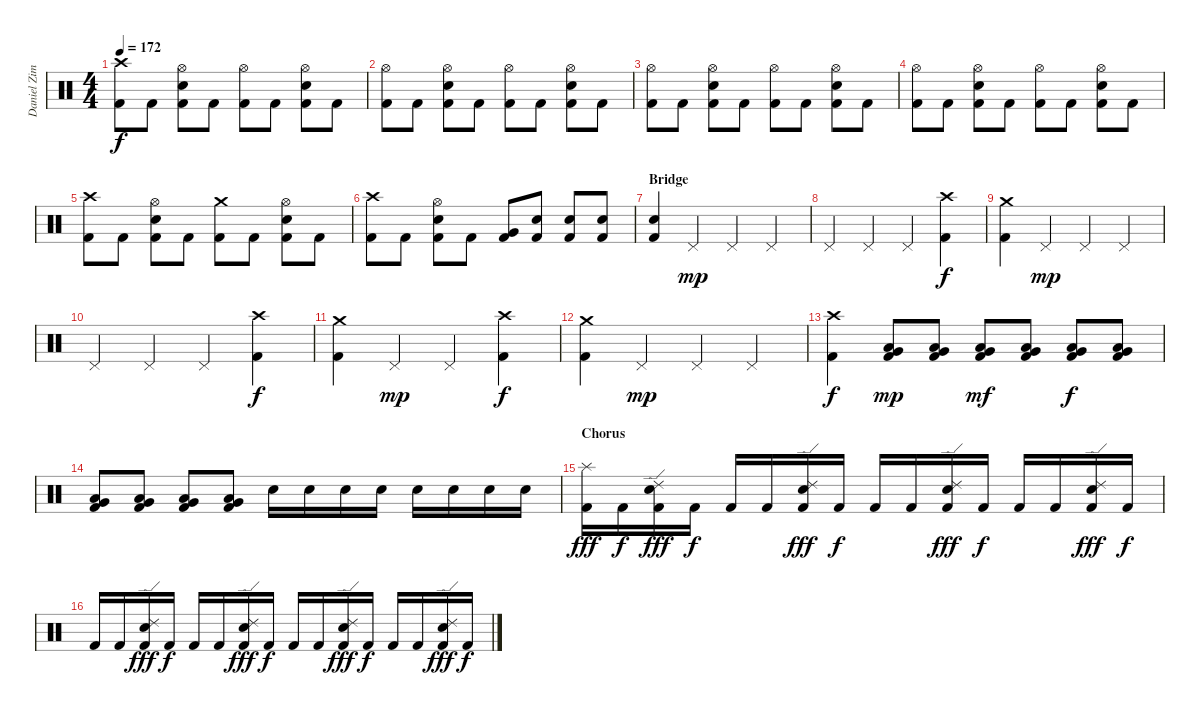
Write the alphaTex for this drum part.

\track ("Daniel Zimmermann - Drums" "Daniel Zim") {instrument percussion}
\staff {score}
\articulation defaults
\ts (4 4)
\tempo 172
\clef neutral
\ks c
("Kick (hit) 2" "Crash high (hit)").8{dy f} "Kick (hit) 2".8 ("Kick (hit) 2" "Electric Snare (hit)" "Hi-Hat (open)").8 "Kick (hit) 2".8 ("Kick (hit) 2" "Hi-Hat (open)").8 "Kick (hit) 2".8 ("Kick (hit) 2" "Electric Snare (hit)" "Hi-Hat (open)").8 "Kick (hit) 2".8 |
("Kick (hit) 2" "Hi-Hat (open)").8 "Kick (hit) 2".8 ("Kick (hit) 2" "Electric Snare (hit)" "Hi-Hat (open)").8 "Kick (hit) 2".8 ("Kick (hit) 2" "Hi-Hat (open)").8 "Kick (hit) 2".8 ("Kick (hit) 2" "Electric Snare (hit)" "Hi-Hat (open)").8 "Kick (hit) 2".8 |
("Kick (hit) 2" "Hi-Hat (open)").8 "Kick (hit) 2".8 ("Kick (hit) 2" "Electric Snare (hit)" "Hi-Hat (open)").8 "Kick (hit) 2".8 ("Kick (hit) 2" "Hi-Hat (open)").8 "Kick (hit) 2".8 ("Kick (hit) 2" "Electric Snare (hit)" "Hi-Hat (open)").8 "Kick (hit) 2".8 |
("Kick (hit) 2" "Hi-Hat (open)").8 "Kick (hit) 2".8 ("Kick (hit) 2" "Electric Snare (hit)" "Hi-Hat (open)").8 "Kick (hit) 2".8 ("Kick (hit) 2" "Hi-Hat (open)").8 "Kick (hit) 2".8 ("Kick (hit) 2" "Electric Snare (hit)" "Hi-Hat (open)").8 "Kick (hit) 2".8 |
("Kick (hit) 2" "Crash high (hit)").8 "Kick (hit) 2".8 ("Kick (hit) 2" "Electric Snare (hit)" "Hi-Hat (open)").8 "Kick (hit) 2".8 ("Kick (hit) 2" "Crash medium (hit)").8 "Kick (hit) 2".8 ("Kick (hit) 2" "Electric Snare (hit)" "Hi-Hat (open)").8 "Kick (hit) 2".8 |
("Kick (hit) 2" "Crash high (hit)").8 "Kick (hit) 2".8 ("Kick (hit) 2" "Electric Snare (hit)" "Hi-Hat (open)").8 "Kick (hit) 2".8 ("Kick (hit) 2" "Very Low Tom (hit)").8 ("Kick (hit) 2" "Electric Snare (hit)").8 ("Kick (hit) 2" "Electric Snare (hit)").8 ("Kick (hit) 2" "Electric Snare (hit)").8 |
\section ("" "Bridge")
("Kick (hit) 2" "Electric Snare (hit)").4 "Pedal Hi-Hat (hit)".4{dy mp} "Pedal Hi-Hat (hit)".4 "Pedal Hi-Hat (hit)".4 |
"Pedal Hi-Hat (hit)".4 "Pedal Hi-Hat (hit)".4 "Pedal Hi-Hat (hit)".4 ("Kick (hit) 2" "Crash high (hit)").4{dy f} |
("Kick (hit) 2" "Crash medium (hit)").4 "Pedal Hi-Hat (hit)".4{dy mp} "Pedal Hi-Hat (hit)".4 "Pedal Hi-Hat (hit)".4 |
"Pedal Hi-Hat (hit)".4 "Pedal Hi-Hat (hit)".4 "Pedal Hi-Hat (hit)".4 ("Kick (hit) 2" "Crash high (hit)").4{dy f} |
("Kick (hit) 2" "Crash medium (hit)").4 "Pedal Hi-Hat (hit)".4{dy mp} "Pedal Hi-Hat (hit)".4 ("Kick (hit) 2" "Crash high (hit)").4{dy f} |
("Kick (hit) 2" "Crash medium (hit)").4 "Pedal Hi-Hat (hit)".4{dy mp} "Pedal Hi-Hat (hit)".4 "Pedal Hi-Hat (hit)".4 |
("Kick (hit) 2" "Crash high (hit)").4{dy f} ("Kick (hit) 2" "Low Tom (hit)" "Very Low Tom (hit)").8{dy mp} ("Kick (hit) 2" "Low Tom (hit)" "Very Low Tom (hit)").8 ("Kick (hit) 2" "Low Tom (hit)" "Very Low Tom (hit)").8{dy mf} ("Kick (hit) 2" "Low Tom (hit)" "Very Low Tom (hit)").8 ("Kick (hit) 2" "Low Tom (hit)" "Very Low Tom (hit)").8{dy f} ("Kick (hit) 2" "Low Tom (hit)" "Very Low Tom (hit)").8 |
("Kick (hit) 2" "Low Tom (hit)" "Very Low Tom (hit)").8 ("Kick (hit) 2" "Low Tom (hit)" "Very Low Tom (hit)").8 ("Kick (hit) 2" "Low Tom (hit)" "Very Low Tom (hit)").8 ("Kick (hit) 2" "Low Tom (hit)" "Very Low Tom (hit)").8 "Electric Snare (hit)".16 "Electric Snare (hit)".16 "Electric Snare (hit)".16 "Electric Snare (hit)".16 "Electric Snare (hit)".16 "Electric Snare (hit)".16 "Electric Snare (hit)".16 "Electric Snare (hit)".16 |
\section ("" "Chorus")
("Kick (hit) 2" "Splash (hit)").16{dy fff} "Kick (hit) 2".16{dy f} ("Kick (hit) 2" "Electric Snare (hit)" "Ride (edge) 2").16{dy fff} "Kick (hit) 2".16{dy f} "Kick (hit) 2".16 "Kick (hit) 2".16 ("Kick (hit) 2" "Electric Snare (hit)" "Ride (edge) 2").16{dy fff} "Kick (hit) 2".16{dy f} "Kick (hit) 2".16 "Kick (hit) 2".16 ("Kick (hit) 2" "Electric Snare (hit)" "Ride (edge) 2").16{dy fff} "Kick (hit) 2".16{dy f} "Kick (hit) 2".16 "Kick (hit) 2".16 ("Kick (hit) 2" "Electric Snare (hit)" "Ride (edge) 2").16{dy fff} "Kick (hit) 2".16{dy f} |
"Kick (hit) 2".16 "Kick (hit) 2".16 ("Kick (hit) 2" "Electric Snare (hit)" "Ride (edge) 2").16{dy fff} "Kick (hit) 2".16{dy f} "Kick (hit) 2".16 "Kick (hit) 2".16 ("Kick (hit) 2" "Electric Snare (hit)" "Ride (edge) 2").16{dy fff} "Kick (hit) 2".16{dy f} "Kick (hit) 2".16 "Kick (hit) 2".16 ("Kick (hit) 2" "Electric Snare (hit)" "Ride (edge) 2").16{dy fff} "Kick (hit) 2".16{dy f} "Kick (hit) 2".16 "Kick (hit) 2".16 ("Kick (hit) 2" "Electric Snare (hit)" "Ride (edge) 2").16{dy fff} "Kick (hit) 2".16{dy f}
